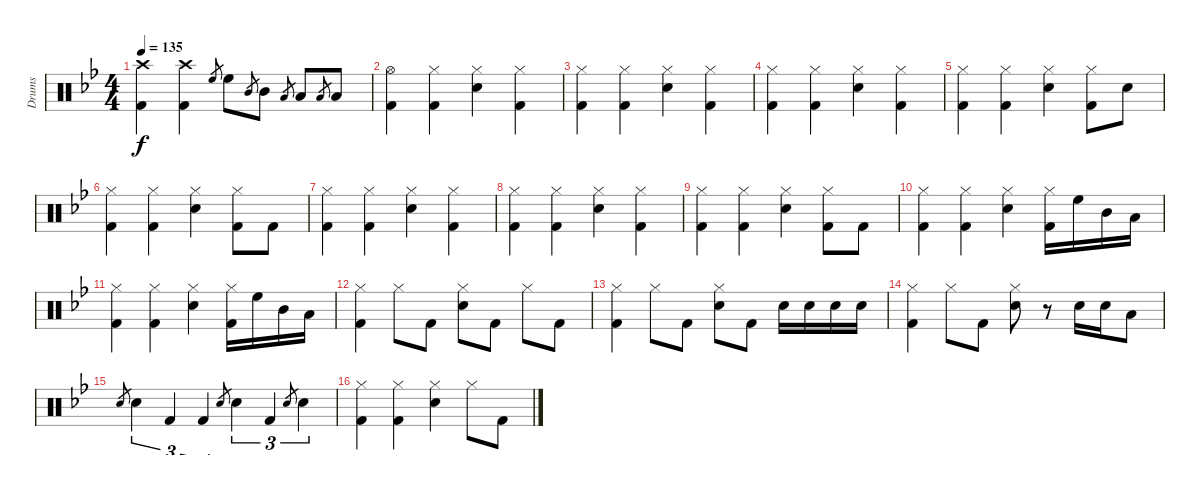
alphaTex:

\track ("Drums" "Drums") {instrument percussion}
\staff {score}
\articulation defaults
\ts (4 4)
\tempo 135
\clef neutral
\ks bb
("Crash high (hit)" "Kick (hit) 2").4{dy f} ("Crash high (hit)" "Kick (hit) 2").4 "High Floor Tom (hit)".8{gr} "High Floor Tom (hit)".8 "Mid Tom (hit)".8{gr} "Mid Tom (hit)".8 "Low Tom (hit)".8{gr} "Low Tom (hit)".8 "Low Floor Tom (hit)".8{gr} "Low Floor Tom (hit)".8 |
("Hi-Hat (open)" "Kick (hit) 2").4 ("Hi-Hat (closed)" "Kick (hit) 2").4 ("Hi-Hat (closed)" "Snare (hit) 2").4 ("Hi-Hat (closed)" "Kick (hit) 2").4 |
("Hi-Hat (closed)" "Kick (hit) 2").4 ("Hi-Hat (closed)" "Kick (hit) 2").4 ("Hi-Hat (closed)" "Snare (hit) 2").4 ("Hi-Hat (closed)" "Kick (hit) 2").4 |
("Hi-Hat (closed)" "Kick (hit) 2").4 ("Hi-Hat (closed)" "Kick (hit) 2").4 ("Hi-Hat (closed)" "Snare (hit) 2").4 ("Hi-Hat (closed)" "Kick (hit) 2").4 |
("Hi-Hat (closed)" "Kick (hit) 2").4 ("Hi-Hat (closed)" "Kick (hit) 2").4 ("Hi-Hat (closed)" "Snare (hit) 2").4 ("Hi-Hat (closed)" "Kick (hit) 2").8 "Snare (hit) 2".8 |
("Hi-Hat (closed)" "Kick (hit) 2").4 ("Hi-Hat (closed)" "Kick (hit) 2").4 ("Hi-Hat (closed)" "Snare (hit) 2").4 ("Hi-Hat (closed)" "Kick (hit) 2").8 "Kick (hit) 2".8 |
("Hi-Hat (closed)" "Kick (hit) 2").4 ("Hi-Hat (closed)" "Kick (hit) 2").4 ("Hi-Hat (closed)" "Snare (hit) 2").4 ("Hi-Hat (closed)" "Kick (hit) 2").4 |
("Hi-Hat (closed)" "Kick (hit) 2").4 ("Hi-Hat (closed)" "Kick (hit) 2").4 ("Hi-Hat (closed)" "Snare (hit) 2").4 ("Hi-Hat (closed)" "Kick (hit) 2").4 |
("Hi-Hat (closed)" "Kick (hit) 2").4 ("Hi-Hat (closed)" "Kick (hit) 2").4 ("Hi-Hat (closed)" "Snare (hit) 2").4 ("Hi-Hat (closed)" "Kick (hit) 2").8 "Kick (hit) 2".8 |
("Hi-Hat (closed)" "Kick (hit) 2").4 ("Hi-Hat (closed)" "Kick (hit) 2").4 ("Hi-Hat (closed)" "Snare (hit) 2").4 ("Hi-Hat (closed)" "Kick (hit) 2").16 "High Floor Tom (hit)".16 "Mid Tom (hit)".16 "Low Tom (hit)".16 |
("Hi-Hat (closed)" "Kick (hit) 2").4 ("Hi-Hat (closed)" "Kick (hit) 2").4 ("Hi-Hat (closed)" "Snare (hit) 2").4 ("Hi-Hat (closed)" "Kick (hit) 2").16 "High Floor Tom (hit)".16 "Mid Tom (hit)".16 "Low Tom (hit)".16 |
("Hi-Hat (closed)" "Kick (hit) 2").4 "Hi-Hat (closed)".8 "Kick (hit) 2".8 ("Hi-Hat (closed)" "Snare (hit) 2").8 "Kick (hit) 2".8 "Hi-Hat (closed)".8 "Kick (hit) 2".8 |
("Hi-Hat (closed)" "Kick (hit) 2").4 "Hi-Hat (closed)".8 "Kick (hit) 2".8 ("Hi-Hat (closed)" "Snare (hit) 2").8 "Kick (hit) 2".8 "Snare (hit) 2".16 "Snare (hit) 2".16 "Snare (hit) 2".16 "Snare (hit) 2".16 |
("Hi-Hat (closed)" "Kick (hit) 2").4 "Hi-Hat (closed)".8 "Kick (hit) 2".8 ("Hi-Hat (closed)" "Snare (hit) 2").8 r.8 "Snare (hit) 2".16 "Snare (hit) 2".16 "Low Tom (hit)".8 |
"Snare (hit) 2".8{gr} "Snare (hit) 2".4{tu (3 2)} "Kick (hit) 2".4{tu (3 2)} "Kick (hit) 2".4{tu (3 2)} "Snare (hit) 2".8{gr} "Snare (hit) 2".4{tu (3 2)} "Kick (hit) 2".4{tu (3 2)} "Snare (hit) 2".8{gr} "Snare (hit) 2".4{tu (3 2)} |
("Hi-Hat (closed)" "Kick (hit) 2").4 ("Hi-Hat (closed)" "Kick (hit) 2").4 ("Hi-Hat (closed)" "Snare (hit) 2").4 "Hi-Hat (closed)".8 "Kick (hit) 2".8
